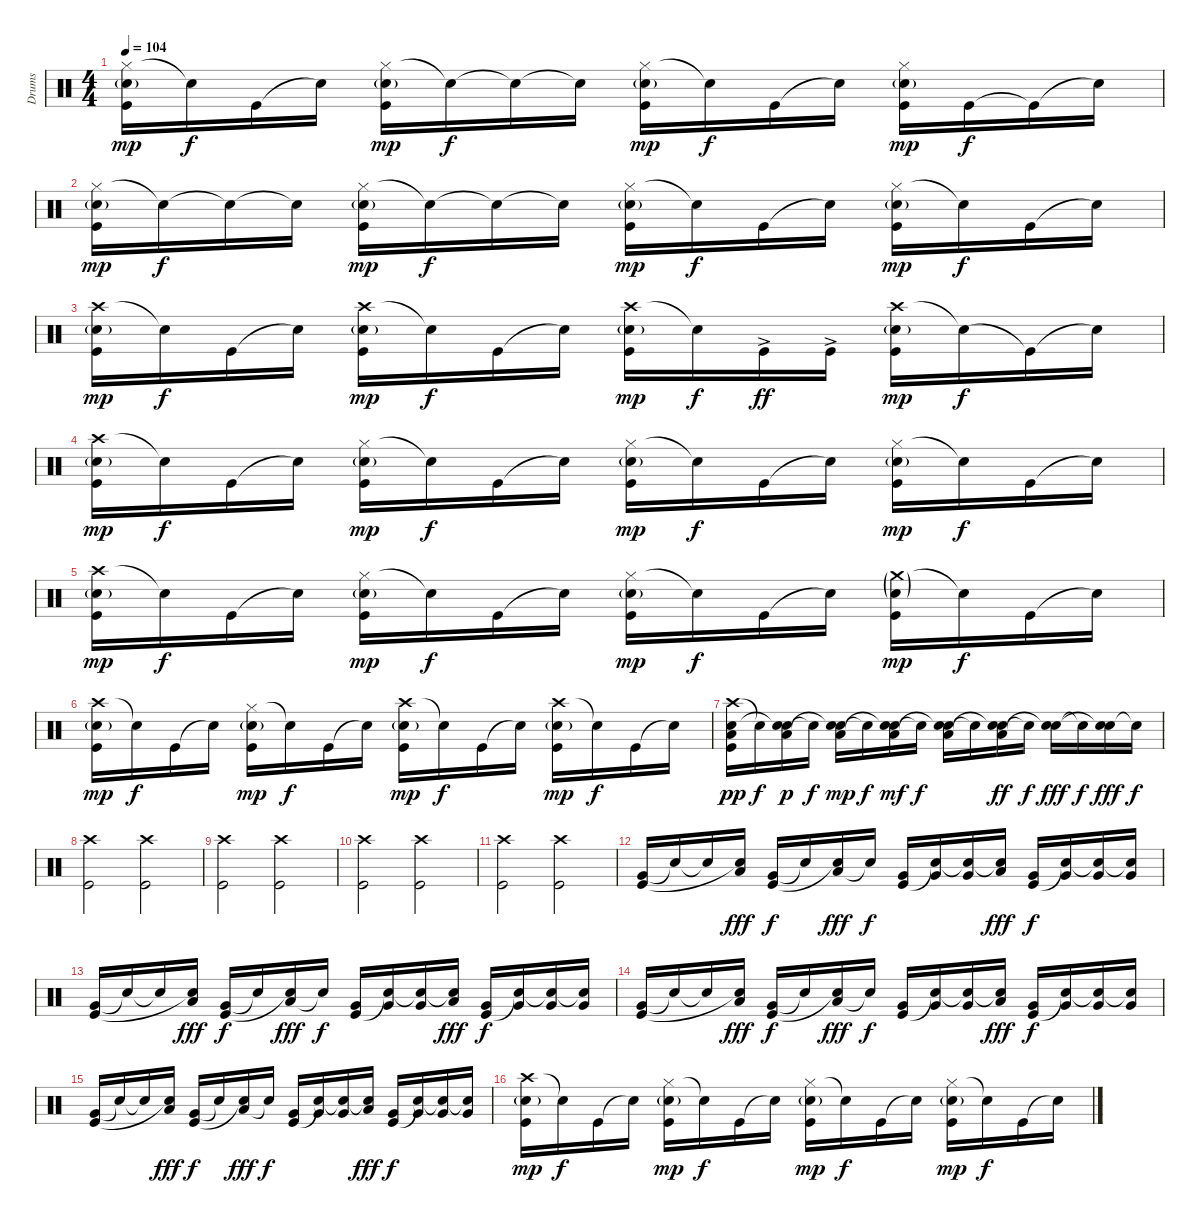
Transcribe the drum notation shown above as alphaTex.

\track ("Drums" "Drums") {instrument percussion}
\staff {score}
\articulation defaults
\ts (4 4)
\tempo 104
\clef neutral
\ks c
("Hi-Hat (closed)" "Electric Snare (hit)"{g} "Kick (hit)").16{dy mp} "Snare (hit)"{t}.16{dy f} "Kick (hit)".16 "Snare (hit)"{t}.16 ("Hi-Hat (closed)" "Electric Snare (hit)"{g} "Kick (hit)").16{dy mp} "Snare (hit)"{t}.16{dy f} "Snare (hit)"{t}.16 "Snare (hit)"{t}.16 ("Hi-Hat (closed)" "Electric Snare (hit)"{g} "Kick (hit)").16{dy mp} "Snare (hit)"{t}.16{dy f} "Kick (hit)".16 "Snare (hit)"{t}.16 ("Hi-Hat (closed)" "Electric Snare (hit)"{g} "Kick (hit)").16{dy mp} "Kick (hit)".16{dy f} "Kick (hit)"{t}.16 "Snare (hit)"{t}.16 |
("Hi-Hat (closed)" "Electric Snare (hit)"{g} "Kick (hit)").16{dy mp} "Snare (hit)"{t}.16{dy f} "Snare (hit)"{t}.16 "Snare (hit)"{t}.16 ("Hi-Hat (closed)" "Electric Snare (hit)"{g} "Kick (hit)").16{dy mp} "Snare (hit)"{t}.16{dy f} "Snare (hit)"{t}.16 "Snare (hit)"{t}.16 ("Hi-Hat (closed)" "Electric Snare (hit)"{g} "Kick (hit)").16{dy mp} "Snare (hit)"{t}.16{dy f} "Kick (hit)".16 "Snare (hit)"{t}.16 ("Hi-Hat (closed)" "Electric Snare (hit)"{g} "Kick (hit)").16{dy mp} "Snare (hit)"{t}.16{dy f} "Kick (hit)".16 "Snare (hit)"{t}.16 |
("Crash high (hit)" "Electric Snare (hit)"{g} "Kick (hit)").16{dy mp} "Snare (hit)"{t}.16{dy f} "Kick (hit)".16 "Snare (hit)"{t}.16 ("Crash high (hit)" "Electric Snare (hit)"{g} "Kick (hit)").16{dy mp} "Snare (hit)"{t}.16{dy f} "Kick (hit)".16 "Snare (hit)"{t}.16 ("Crash high (hit)" "Electric Snare (hit)"{g} "Kick (hit)").16{dy mp} "Snare (hit)"{t}.16{dy f} "Kick (hit)"{ac}.16{dy ff} "Kick (hit)"{ac}.16 ("Crash high (hit)" "Electric Snare (hit)"{g} "Kick (hit)").16{dy mp} "Snare (hit)"{t}.16{dy f} "Kick (hit)"{t}.16 "Snare (hit)"{t}.16 |
("Crash high (hit)" "Electric Snare (hit)"{g} "Kick (hit)").16{dy mp} "Snare (hit)"{t}.16{dy f} "Kick (hit)".16 "Snare (hit)"{t}.16 ("Hi-Hat (closed)" "Electric Snare (hit)"{g} "Kick (hit)").16{dy mp} "Snare (hit)"{t}.16{dy f} "Kick (hit)".16 "Snare (hit)"{t}.16 ("Hi-Hat (closed)" "Electric Snare (hit)"{g} "Kick (hit)").16{dy mp} "Snare (hit)"{t}.16{dy f} "Kick (hit)".16 "Snare (hit)"{t}.16 ("Hi-Hat (closed)" "Electric Snare (hit)"{g} "Kick (hit)").16{dy mp} "Snare (hit)"{t}.16{dy f} "Kick (hit)".16 "Snare (hit)"{t}.16 |
("Crash high (hit)" "Electric Snare (hit)"{g} "Kick (hit)").16{dy mp} "Snare (hit)"{t}.16{dy f} "Kick (hit)".16 "Snare (hit)"{t}.16 ("Hi-Hat (closed)" "Electric Snare (hit)"{g} "Kick (hit)").16{dy mp} "Snare (hit)"{t}.16{dy f} "Kick (hit)".16 "Snare (hit)"{t}.16 ("Hi-Hat (closed)" "Electric Snare (hit)"{g} "Kick (hit)").16{dy mp} "Snare (hit)"{t}.16{dy f} "Kick (hit)".16 "Snare (hit)"{t}.16 ("Crash medium (hit)"{g} "Electric Snare (hit)"{g} "Kick (hit)").16{dy mp} "Snare (hit)"{t}.16{dy f} "Kick (hit)".16 "Snare (hit)"{t}.16 |
("Crash high (hit)" "Electric Snare (hit)"{g} "Kick (hit)").16{dy mp} "Snare (hit)"{t}.16{dy f} "Kick (hit)".16 "Snare (hit)"{t}.16 ("Hi-Hat (closed)" "Electric Snare (hit)"{g} "Kick (hit)").16{dy mp} "Snare (hit)"{t}.16{dy f} "Kick (hit)".16 "Snare (hit)"{t}.16 ("Crash high (hit)" "Electric Snare (hit)"{g} "Kick (hit)").16{dy mp} "Snare (hit)"{t}.16{dy f} "Kick (hit)".16 "Snare (hit)"{t}.16 ("Crash high (hit)" "Electric Snare (hit)"{g} "Kick (hit)").16{dy mp} "Snare (hit)"{t}.16{dy f} "Kick (hit)".16 "Snare (hit)"{t}.16 |
("Crash high (hit)" "Low Tom (hit)" "Electric Snare (hit)" "Kick (hit)").16{dy pp} "Snare (hit)"{t}.16{dy f} ("Low Tom (hit)" "Electric Snare (hit)" "Snare (hit)"{t}).16{dy p} "Snare (hit)"{t}.16{dy f} ("Low Tom (hit)" "Electric Snare (hit)" "Snare (hit)"{t}).16{dy mp} "Snare (hit)"{t}.16{dy f} ("Low Tom (hit)" "Electric Snare (hit)" "Snare (hit)"{t}).16{dy mf} "Snare (hit)"{t}.16{dy f} ("Low Tom (hit)" "Electric Snare (hit)" "Snare (hit)"{t}).16 "Snare (hit)"{t}.16 ("Low Tom (hit)" "Electric Snare (hit)" "Snare (hit)"{t}).16{dy ff} "Snare (hit)"{t}.16{dy f} ("Electric Snare (hit)" "Snare (hit)"{t}).16{dy fff} "Snare (hit)"{t}.16{dy f} ("Electric Snare (hit)" "Snare (hit)"{t}).16{dy fff} "Snare (hit)"{t}.16{dy f} |
("Crash high (hit)" "Kick (hit)").2 ("Crash high (hit)" "Kick (hit)").2 |
("Crash high (hit)" "Kick (hit)").2 ("Crash high (hit)" "Kick (hit)").2 |
("Crash high (hit)" "Kick (hit)").2 ("Crash high (hit)" "Kick (hit)").2 |
("Crash high (hit)" "Kick (hit)").2 ("Crash high (hit)" "Kick (hit)").2 |
("Very Low Tom (hit)" "Kick (hit)").16 "Snare (hit)"{t}.16 "Snare (hit)"{t}.16 ("Low Tom (hit)" "Snare (hit)"{t}).16{dy fff} ("Very Low Tom (hit)" "Kick (hit)").16{dy f} "Snare (hit)"{t}.16 ("Low Tom (hit)" "Snare (hit)"{t}).16{dy fff} "Snare (hit)"{t}.16{dy f} ("Very Low Tom (hit)" "Kick (hit)").16 ("Very Low Tom (hit)" "Snare (hit)"{t}).16 ("Very Low Tom (hit)" "Snare (hit)"{t}).16 ("Low Tom (hit)" "Snare (hit)"{t}).16{dy fff} ("Very Low Tom (hit)" "Kick (hit)").16{dy f} ("Very Low Tom (hit)" "Snare (hit)"{t}).16 ("Very Low Tom (hit)" "Snare (hit)"{t}).16 ("Very Low Tom (hit)" "Snare (hit)"{t}).16 |
("Very Low Tom (hit)" "Kick (hit)").16 "Snare (hit)"{t}.16 "Snare (hit)"{t}.16 ("Low Tom (hit)" "Snare (hit)"{t}).16{dy fff} ("Very Low Tom (hit)" "Kick (hit)").16{dy f} "Snare (hit)"{t}.16 ("Low Tom (hit)" "Snare (hit)"{t}).16{dy fff} "Snare (hit)"{t}.16{dy f} ("Very Low Tom (hit)" "Kick (hit)").16 ("Very Low Tom (hit)" "Snare (hit)"{t}).16 ("Very Low Tom (hit)" "Snare (hit)"{t}).16 ("Low Tom (hit)" "Snare (hit)"{t}).16{dy fff} ("Very Low Tom (hit)" "Kick (hit)").16{dy f} ("Very Low Tom (hit)" "Snare (hit)"{t}).16 ("Very Low Tom (hit)" "Snare (hit)"{t}).16 ("Very Low Tom (hit)" "Snare (hit)"{t}).16 |
("Very Low Tom (hit)" "Kick (hit)").16 "Snare (hit)"{t}.16 "Snare (hit)"{t}.16 ("Low Tom (hit)" "Snare (hit)"{t}).16{dy fff} ("Very Low Tom (hit)" "Kick (hit)").16{dy f} "Snare (hit)"{t}.16 ("Low Tom (hit)" "Snare (hit)"{t}).16{dy fff} "Snare (hit)"{t}.16{dy f} ("Very Low Tom (hit)" "Kick (hit)").16 ("Very Low Tom (hit)" "Snare (hit)"{t}).16 ("Very Low Tom (hit)" "Snare (hit)"{t}).16 ("Low Tom (hit)" "Snare (hit)"{t}).16{dy fff} ("Very Low Tom (hit)" "Kick (hit)").16{dy f} ("Very Low Tom (hit)" "Snare (hit)"{t}).16 ("Very Low Tom (hit)" "Snare (hit)"{t}).16 ("Very Low Tom (hit)" "Snare (hit)"{t}).16 |
("Very Low Tom (hit)" "Kick (hit)").16 "Snare (hit)"{t}.16 "Snare (hit)"{t}.16 ("Low Tom (hit)" "Snare (hit)"{t}).16{dy fff} ("Very Low Tom (hit)" "Kick (hit)").16{dy f} "Snare (hit)"{t}.16 ("Low Tom (hit)" "Snare (hit)"{t}).16{dy fff} "Snare (hit)"{t}.16{dy f} ("Very Low Tom (hit)" "Kick (hit)").16 ("Very Low Tom (hit)" "Snare (hit)"{t}).16 ("Very Low Tom (hit)" "Snare (hit)"{t}).16 ("Low Tom (hit)" "Snare (hit)"{t}).16{dy fff} ("Very Low Tom (hit)" "Kick (hit)").16{dy f} ("Very Low Tom (hit)" "Snare (hit)"{t}).16 ("Very Low Tom (hit)" "Snare (hit)"{t}).16 ("Very Low Tom (hit)" "Snare (hit)"{t}).16 |
("Crash high (hit)" "Electric Snare (hit)"{g} "Kick (hit)").16{dy mp} "Snare (hit)"{t}.16{dy f} "Kick (hit)".16 "Snare (hit)"{t}.16 ("Hi-Hat (closed)" "Electric Snare (hit)"{g} "Kick (hit)").16{dy mp} "Snare (hit)"{t}.16{dy f} "Kick (hit)".16 "Snare (hit)"{t}.16 ("Hi-Hat (closed)" "Electric Snare (hit)"{g} "Kick (hit)").16{dy mp} "Snare (hit)"{t}.16{dy f} "Kick (hit)".16 "Snare (hit)"{t}.16 ("Hi-Hat (closed)" "Electric Snare (hit)"{g} "Kick (hit)").16{dy mp} "Snare (hit)"{t}.16{dy f} "Kick (hit)".16 "Snare (hit)"{t}.16
